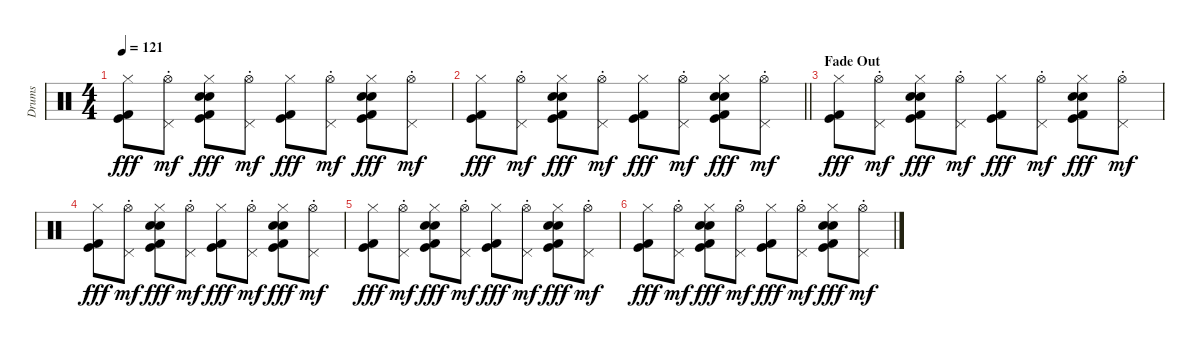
\track ("Drums" "Drums") {instrument percussion}
\staff {score}
\articulation defaults
\ts (4 4)
\tempo 121
\clef neutral
\ks c
("Hi-Hat (closed)" "Kick (hit)" "Kick (hit) 2").8{dy fff} ("Pedal Hi-Hat (hit)"{st} "Hi-Hat (open)"{st}).8{dy mf} ("Hi-Hat (closed)" "Hand Clap (hit)" "Snare (hit) 2" "Kick (hit)" "Kick (hit) 2").8{dy fff} ("Pedal Hi-Hat (hit)"{st} "Hi-Hat (open)"{st}).8{dy mf} ("Hi-Hat (closed)" "Kick (hit)" "Kick (hit) 2").8{dy fff} ("Pedal Hi-Hat (hit)"{st} "Hi-Hat (open)"{st}).8{dy mf} ("Hi-Hat (closed)" "Hand Clap (hit)" "Snare (hit) 2" "Kick (hit)" "Kick (hit) 2").8{dy fff} ("Pedal Hi-Hat (hit)"{st} "Hi-Hat (open)"{st}).8{dy mf} |
\barLineRight lightlight
("Hi-Hat (closed)" "Kick (hit)" "Kick (hit) 2").8{dy fff} ("Pedal Hi-Hat (hit)"{st} "Hi-Hat (open)"{st}).8{dy mf} ("Hi-Hat (closed)" "Hand Clap (hit)" "Snare (hit) 2" "Kick (hit)" "Kick (hit) 2").8{dy fff} ("Pedal Hi-Hat (hit)"{st} "Hi-Hat (open)"{st}).8{dy mf} ("Hi-Hat (closed)" "Kick (hit)" "Kick (hit) 2").8{dy fff} ("Pedal Hi-Hat (hit)"{st} "Hi-Hat (open)"{st}).8{dy mf} ("Hi-Hat (closed)" "Hand Clap (hit)" "Snare (hit) 2" "Kick (hit)" "Kick (hit) 2").8{dy fff} ("Pedal Hi-Hat (hit)"{st} "Hi-Hat (open)"{st}).8{dy mf} |
\section ("" "Fade Out")
("Hi-Hat (closed)" "Kick (hit)" "Kick (hit) 2").8{dy fff volume 0} ("Pedal Hi-Hat (hit)"{st} "Hi-Hat (open)"{st}).8{dy mf} ("Hi-Hat (closed)" "Hand Clap (hit)" "Snare (hit) 2" "Kick (hit)" "Kick (hit) 2").8{dy fff} ("Pedal Hi-Hat (hit)"{st} "Hi-Hat (open)"{st}).8{dy mf} ("Hi-Hat (closed)" "Kick (hit)" "Kick (hit) 2").8{dy fff} ("Pedal Hi-Hat (hit)"{st} "Hi-Hat (open)"{st}).8{dy mf} ("Hi-Hat (closed)" "Hand Clap (hit)" "Snare (hit) 2" "Kick (hit)" "Kick (hit) 2").8{dy fff} ("Pedal Hi-Hat (hit)"{st} "Hi-Hat (open)"{st}).8{dy mf} |
("Hi-Hat (closed)" "Kick (hit)" "Kick (hit) 2").8{dy fff} ("Pedal Hi-Hat (hit)"{st} "Hi-Hat (open)"{st}).8{dy mf} ("Hi-Hat (closed)" "Hand Clap (hit)" "Snare (hit) 2" "Kick (hit)" "Kick (hit) 2").8{dy fff} ("Pedal Hi-Hat (hit)"{st} "Hi-Hat (open)"{st}).8{dy mf} ("Hi-Hat (closed)" "Kick (hit)" "Kick (hit) 2").8{dy fff} ("Pedal Hi-Hat (hit)"{st} "Hi-Hat (open)"{st}).8{dy mf} ("Hi-Hat (closed)" "Hand Clap (hit)" "Snare (hit) 2" "Kick (hit)" "Kick (hit) 2").8{dy fff} ("Pedal Hi-Hat (hit)"{st} "Hi-Hat (open)"{st}).8{dy mf} |
("Hi-Hat (closed)" "Kick (hit)" "Kick (hit) 2").8{dy fff} ("Pedal Hi-Hat (hit)"{st} "Hi-Hat (open)"{st}).8{dy mf} ("Hi-Hat (closed)" "Hand Clap (hit)" "Snare (hit) 2" "Kick (hit)" "Kick (hit) 2").8{dy fff} ("Pedal Hi-Hat (hit)"{st} "Hi-Hat (open)"{st}).8{dy mf} ("Hi-Hat (closed)" "Kick (hit)" "Kick (hit) 2").8{dy fff} ("Pedal Hi-Hat (hit)"{st} "Hi-Hat (open)"{st}).8{dy mf} ("Hi-Hat (closed)" "Hand Clap (hit)" "Snare (hit) 2" "Kick (hit)" "Kick (hit) 2").8{dy fff} ("Pedal Hi-Hat (hit)"{st} "Hi-Hat (open)"{st}).8{dy mf} |
("Hi-Hat (closed)" "Kick (hit)" "Kick (hit) 2").8{dy fff} ("Pedal Hi-Hat (hit)"{st} "Hi-Hat (open)"{st}).8{dy mf} ("Hi-Hat (closed)" "Hand Clap (hit)" "Snare (hit) 2" "Kick (hit)" "Kick (hit) 2").8{dy fff} ("Pedal Hi-Hat (hit)"{st} "Hi-Hat (open)"{st}).8{dy mf} ("Hi-Hat (closed)" "Kick (hit)" "Kick (hit) 2").8{dy fff} ("Pedal Hi-Hat (hit)"{st} "Hi-Hat (open)"{st}).8{dy mf} ("Hi-Hat (closed)" "Hand Clap (hit)" "Snare (hit) 2" "Kick (hit)" "Kick (hit) 2").8{dy fff} ("Pedal Hi-Hat (hit)"{st} "Hi-Hat (open)"{st}).8{dy mf}
